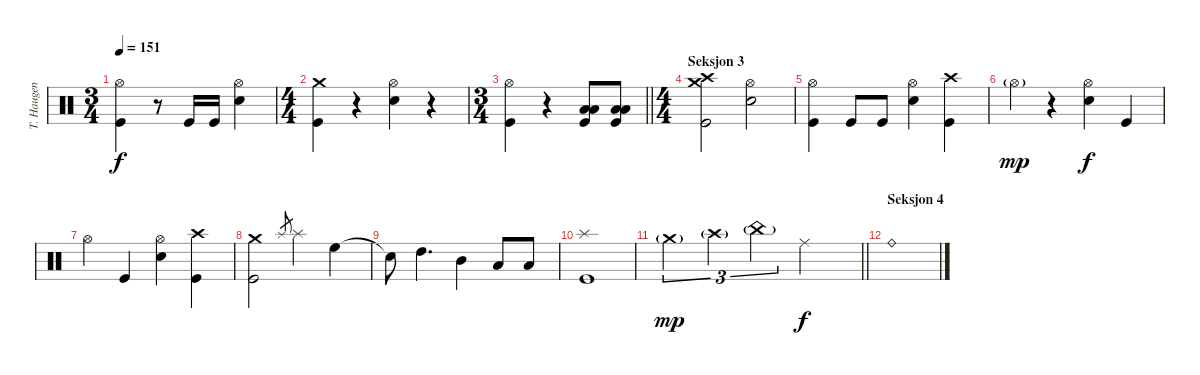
\track ("T. Haugen" "T. Haugen") {instrument percussion}
\staff {score}
\articulation defaults
\ts (3 4)
\tempo 151
\clef neutral
\ks c
("Hi-Hat (open)" "Kick (hit)").4{dy f} r.8 "Kick (hit)".16 "Kick (hit)".16 ("Hi-Hat (open)" "Electric Snare (hit)").4 |
\ts (4 4)
("Crash medium (hit)" "Kick (hit)").4 r.4 ("Hi-Hat (open)" "Electric Snare (hit)").4 r.4 |
\ts (3 4)
\barLineRight lightlight
("Hi-Hat (open)" "Kick (hit)").4 r.4 ("Low Floor Tom (hit)" "Low Floor Tom (hit)" "Kick (hit)").8 ("Low Floor Tom (hit)" "Low Floor Tom (hit)" "Kick (hit)").8 |
\ts (4 4)
\section ("" "Seksjon 3")
("Crash medium (hit)" "Crash high (hit)" "Kick (hit)").2 ("Hi-Hat (open)" "Electric Snare (hit)").2 |
("Hi-Hat (open)" "Kick (hit)").4 "Kick (hit)".8 "Kick (hit)".8 ("Hi-Hat (open)" "Electric Snare (hit)").4 ("Crash high (hit)" "Kick (hit)").4 |
"Hi-Hat (open)"{g}.4{dy mp} r.4 ("Hi-Hat (open)" "Electric Snare (hit)").4{dy f} "Kick (hit)".4 |
"Hi-Hat (open)".4 "Kick (hit)".4 ("Hi-Hat (open)" "Electric Snare (hit)").4 ("Crash high (hit)" "Kick (hit)").4 |
("Crash medium (hit)" "Kick (hit)").2 "Splash (hit)".8{gr} "Splash (hit)".4 "High Floor Tom (hit)".4 |
"Snare (hit)"{t}.8 "High Tom (hit)".4{d} "Mid Tom (hit)".4 "Low Tom (hit)".8 "Low Tom (hit)".8 |
("Splash (hit)" "Kick (hit)").1 |
\barLineRight lightlight "Crash medium (hit)"{g}.4{tu (3 2) dy mp volume 11} "Crash high (hit)"{g}.4{tu (3 2)} "China (hit)"{g}.4{tu (3 2)} "Ride (middle)".2{dy f volume 12}
|
\section ("" "Seksjon 4")
"Ride (bell)".1
